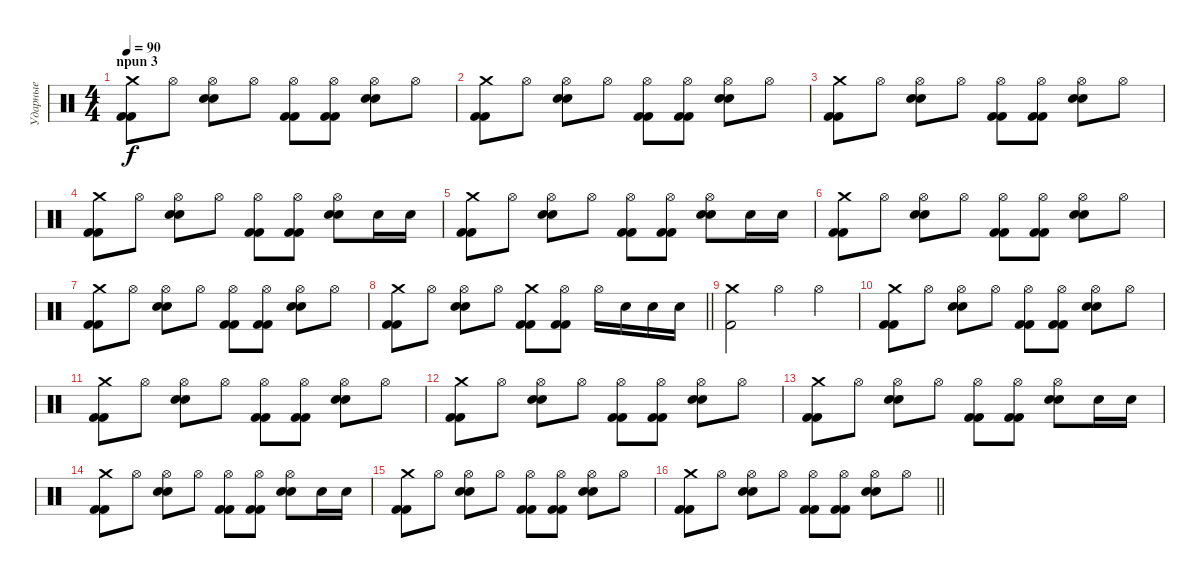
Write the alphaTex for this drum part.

\track ("Ударные" "Ударные") {instrument percussion}
\staff {score}
\articulation defaults
\ts (4 4)
\section ("" "npun 3")
\tempo 90
\clef neutral
\ks c
("Crash medium (hit)" "Kick (hit) 2" "Kick (hit) 2").8{dy f} "Hi-Hat (open)".8 ("Hi-Hat (open)" "Snare (hit) 2" "Snare (hit) 2").8 "Hi-Hat (open)".8 ("Hi-Hat (open)" "Kick (hit) 2" "Kick (hit) 2").8 ("Hi-Hat (open)" "Kick (hit) 2" "Kick (hit) 2").8 ("Hi-Hat (open)" "Snare (hit) 2" "Snare (hit) 2").8 "Hi-Hat (open)".8 |
("Crash medium (hit)" "Kick (hit) 2" "Kick (hit) 2").8 "Hi-Hat (open)".8 ("Hi-Hat (open)" "Snare (hit) 2" "Snare (hit) 2").8 "Hi-Hat (open)".8 ("Hi-Hat (open)" "Kick (hit) 2" "Kick (hit) 2").8 ("Hi-Hat (open)" "Kick (hit) 2" "Kick (hit) 2").8 ("Hi-Hat (open)" "Snare (hit) 2" "Snare (hit) 2").8 "Hi-Hat (open)".8 |
("Crash medium (hit)" "Kick (hit) 2" "Kick (hit) 2").8 "Hi-Hat (open)".8 ("Hi-Hat (open)" "Snare (hit) 2" "Snare (hit) 2").8 "Hi-Hat (open)".8 ("Hi-Hat (open)" "Kick (hit) 2" "Kick (hit) 2").8 ("Hi-Hat (open)" "Kick (hit) 2" "Kick (hit) 2").8 ("Hi-Hat (open)" "Snare (hit) 2" "Snare (hit) 2").8 "Hi-Hat (open)".8 |
("Crash medium (hit)" "Kick (hit) 2" "Kick (hit) 2").8 "Hi-Hat (open)".8 ("Hi-Hat (open)" "Snare (hit) 2" "Snare (hit) 2").8 "Hi-Hat (open)".8 ("Hi-Hat (open)" "Kick (hit) 2" "Kick (hit) 2").8 ("Hi-Hat (open)" "Kick (hit) 2" "Kick (hit) 2").8 ("Hi-Hat (open)" "Snare (hit) 2" "Snare (hit) 2").8 "Snare (hit) 2".16 "Snare (hit) 2".16 |
("Crash medium (hit)" "Kick (hit) 2" "Kick (hit) 2").8 "Hi-Hat (open)".8 ("Hi-Hat (open)" "Snare (hit) 2" "Snare (hit) 2").8 "Hi-Hat (open)".8 ("Hi-Hat (open)" "Kick (hit) 2" "Kick (hit) 2").8 ("Hi-Hat (open)" "Kick (hit) 2" "Kick (hit) 2").8 ("Hi-Hat (open)" "Snare (hit) 2" "Snare (hit) 2").8 "Snare (hit) 2".16 "Snare (hit) 2".16 |
("Crash medium (hit)" "Kick (hit) 2" "Kick (hit) 2").8 "Hi-Hat (open)".8 ("Hi-Hat (open)" "Snare (hit) 2" "Snare (hit) 2").8 "Hi-Hat (open)".8 ("Hi-Hat (open)" "Kick (hit) 2" "Kick (hit) 2").8 ("Hi-Hat (open)" "Kick (hit) 2" "Kick (hit) 2").8 ("Hi-Hat (open)" "Snare (hit) 2" "Snare (hit) 2").8 "Hi-Hat (open)".8 |
("Crash medium (hit)" "Kick (hit) 2" "Kick (hit) 2").8 "Hi-Hat (open)".8 ("Hi-Hat (open)" "Snare (hit) 2" "Snare (hit) 2").8 "Hi-Hat (open)".8 ("Hi-Hat (open)" "Kick (hit) 2" "Kick (hit) 2").8 ("Hi-Hat (open)" "Kick (hit) 2" "Kick (hit) 2").8 ("Hi-Hat (open)" "Snare (hit) 2" "Snare (hit) 2").8 "Hi-Hat (open)".8 |
\barLineRight lightlight
("Crash medium (hit)" "Kick (hit) 2" "Kick (hit) 2").8 "Hi-Hat (open)".8 ("Hi-Hat (open)" "Snare (hit) 2" "Snare (hit) 2").8 "Hi-Hat (open)".8 ("Crash medium (hit)" "Kick (hit) 2" "Kick (hit) 2").8 ("Hi-Hat (open)" "Kick (hit) 2" "Kick (hit) 2").8 "Hi-Hat (open)".16 "Snare (hit) 2".16 "Snare (hit) 2".16 "Snare (hit) 2".16 |
("Kick (hit) 2" "Crash medium (hit)").2 "Hi-Hat (open)".4 "Hi-Hat (open)".4 |
("Crash medium (hit)" "Kick (hit) 2" "Kick (hit) 2").8 "Hi-Hat (open)".8 ("Hi-Hat (open)" "Snare (hit) 2" "Snare (hit) 2").8 "Hi-Hat (open)".8 ("Hi-Hat (open)" "Kick (hit) 2" "Kick (hit) 2").8 ("Hi-Hat (open)" "Kick (hit) 2" "Kick (hit) 2").8 ("Hi-Hat (open)" "Snare (hit) 2" "Snare (hit) 2").8 "Hi-Hat (open)".8 |
("Crash medium (hit)" "Kick (hit) 2" "Kick (hit) 2").8 "Hi-Hat (open)".8 ("Hi-Hat (open)" "Snare (hit) 2" "Snare (hit) 2").8 "Hi-Hat (open)".8 ("Hi-Hat (open)" "Kick (hit) 2" "Kick (hit) 2").8 ("Hi-Hat (open)" "Kick (hit) 2" "Kick (hit) 2").8 ("Hi-Hat (open)" "Snare (hit) 2" "Snare (hit) 2").8 "Hi-Hat (open)".8 |
("Crash medium (hit)" "Kick (hit) 2" "Kick (hit) 2").8 "Hi-Hat (open)".8 ("Hi-Hat (open)" "Snare (hit) 2" "Snare (hit) 2").8 "Hi-Hat (open)".8 ("Hi-Hat (open)" "Kick (hit) 2" "Kick (hit) 2").8 ("Hi-Hat (open)" "Kick (hit) 2" "Kick (hit) 2").8 ("Hi-Hat (open)" "Snare (hit) 2" "Snare (hit) 2").8 "Hi-Hat (open)".8 |
("Crash medium (hit)" "Kick (hit) 2" "Kick (hit) 2").8 "Hi-Hat (open)".8 ("Hi-Hat (open)" "Snare (hit) 2" "Snare (hit) 2").8 "Hi-Hat (open)".8 ("Hi-Hat (open)" "Kick (hit) 2" "Kick (hit) 2").8 ("Hi-Hat (open)" "Kick (hit) 2" "Kick (hit) 2").8 ("Hi-Hat (open)" "Snare (hit) 2" "Snare (hit) 2").8 "Snare (hit) 2".16 "Snare (hit) 2".16 |
("Crash medium (hit)" "Kick (hit) 2" "Kick (hit) 2").8 "Hi-Hat (open)".8 ("Hi-Hat (open)" "Snare (hit) 2" "Snare (hit) 2").8 "Hi-Hat (open)".8 ("Hi-Hat (open)" "Kick (hit) 2" "Kick (hit) 2").8 ("Hi-Hat (open)" "Kick (hit) 2" "Kick (hit) 2").8 ("Hi-Hat (open)" "Snare (hit) 2" "Snare (hit) 2").8 "Snare (hit) 2".16 "Snare (hit) 2".16 |
("Crash medium (hit)" "Kick (hit) 2" "Kick (hit) 2").8 "Hi-Hat (open)".8 ("Hi-Hat (open)" "Snare (hit) 2" "Snare (hit) 2").8 "Hi-Hat (open)".8 ("Hi-Hat (open)" "Kick (hit) 2" "Kick (hit) 2").8 ("Hi-Hat (open)" "Kick (hit) 2" "Kick (hit) 2").8 ("Hi-Hat (open)" "Snare (hit) 2" "Snare (hit) 2").8 "Hi-Hat (open)".8 |
\barLineRight lightlight
("Crash medium (hit)" "Kick (hit) 2" "Kick (hit) 2").8 "Hi-Hat (open)".8 ("Hi-Hat (open)" "Snare (hit) 2" "Snare (hit) 2").8 "Hi-Hat (open)".8 ("Hi-Hat (open)" "Kick (hit) 2" "Kick (hit) 2").8 ("Hi-Hat (open)" "Kick (hit) 2" "Kick (hit) 2").8 ("Hi-Hat (open)" "Snare (hit) 2" "Snare (hit) 2").8 "Hi-Hat (open)".8
